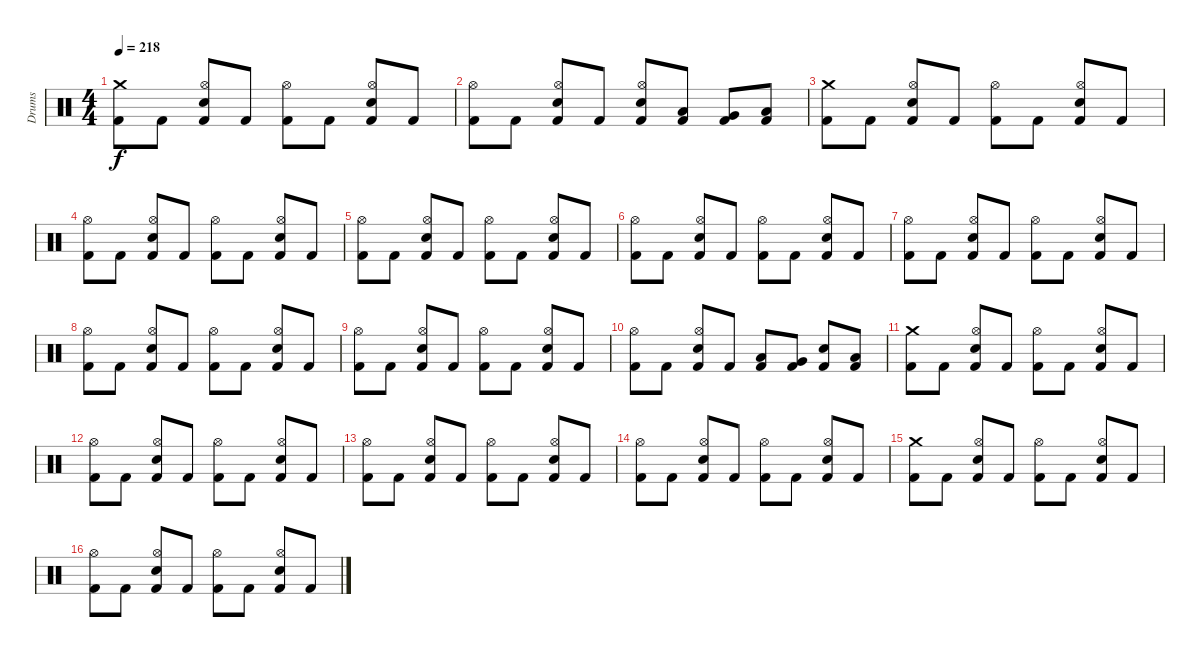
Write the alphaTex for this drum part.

\track ("Drums" "Drums") {instrument percussion}
\staff {score}
\articulation defaults
\ts (4 4)
\tempo 218
\clef neutral
\ks c
("Crash medium (hit)" "Kick (hit) 2").8{dy f} "Kick (hit) 2".8 ("Hi-Hat (open)" "Snare (hit) 2" "Kick (hit) 2").8 "Kick (hit) 2".8 ("Hi-Hat (open)" "Kick (hit) 2").8 "Kick (hit) 2".8 ("Hi-Hat (open)" "Snare (hit) 2" "Kick (hit) 2").8 "Kick (hit) 2".8 |
("Hi-Hat (open)" "Kick (hit) 2").8 "Kick (hit) 2".8 ("Hi-Hat (open)" "Snare (hit) 2" "Kick (hit) 2").8 "Kick (hit) 2".8 ("Hi-Hat (open)" "Snare (hit) 2" "Kick (hit) 2").8 ("Low Tom (hit)" "Kick (hit) 2").8 ("Very Low Tom (hit)" "Kick (hit) 2").8 ("Low Floor Tom (hit)" "Kick (hit) 2").8 |
("Crash medium (hit)" "Kick (hit) 2").8 "Kick (hit) 2".8 ("Hi-Hat (open)" "Snare (hit) 2" "Kick (hit) 2").8 "Kick (hit) 2".8 ("Hi-Hat (open)" "Kick (hit) 2").8 "Kick (hit) 2".8 ("Hi-Hat (open)" "Snare (hit) 2" "Kick (hit) 2").8 "Kick (hit) 2".8 |
("Hi-Hat (open)" "Kick (hit) 2").8 "Kick (hit) 2".8 ("Hi-Hat (open)" "Snare (hit) 2" "Kick (hit) 2").8 "Kick (hit) 2".8 ("Hi-Hat (open)" "Kick (hit) 2").8 "Kick (hit) 2".8 ("Hi-Hat (open)" "Snare (hit) 2" "Kick (hit) 2").8 "Kick (hit) 2".8 |
("Hi-Hat (open)" "Kick (hit) 2").8 "Kick (hit) 2".8 ("Hi-Hat (open)" "Snare (hit) 2" "Kick (hit) 2").8 "Kick (hit) 2".8 ("Hi-Hat (open)" "Kick (hit) 2").8 "Kick (hit) 2".8 ("Hi-Hat (open)" "Snare (hit) 2" "Kick (hit) 2").8 "Kick (hit) 2".8 |
("Hi-Hat (open)" "Kick (hit) 2").8 "Kick (hit) 2".8 ("Hi-Hat (open)" "Snare (hit) 2" "Kick (hit) 2").8 "Kick (hit) 2".8 ("Hi-Hat (open)" "Kick (hit) 2").8 "Kick (hit) 2".8 ("Hi-Hat (open)" "Snare (hit) 2" "Kick (hit) 2").8 "Kick (hit) 2".8 |
("Hi-Hat (open)" "Kick (hit) 2").8 "Kick (hit) 2".8 ("Hi-Hat (open)" "Snare (hit) 2" "Kick (hit) 2").8 "Kick (hit) 2".8 ("Hi-Hat (open)" "Kick (hit) 2").8 "Kick (hit) 2".8 ("Hi-Hat (open)" "Snare (hit) 2" "Kick (hit) 2").8 "Kick (hit) 2".8 |
("Hi-Hat (open)" "Kick (hit) 2").8 "Kick (hit) 2".8 ("Hi-Hat (open)" "Snare (hit) 2" "Kick (hit) 2").8 "Kick (hit) 2".8 ("Hi-Hat (open)" "Kick (hit) 2").8 "Kick (hit) 2".8 ("Hi-Hat (open)" "Snare (hit) 2" "Kick (hit) 2").8 "Kick (hit) 2".8 |
("Hi-Hat (open)" "Kick (hit) 2").8 "Kick (hit) 2".8 ("Hi-Hat (open)" "Snare (hit) 2" "Kick (hit) 2").8 "Kick (hit) 2".8 ("Hi-Hat (open)" "Kick (hit) 2").8 "Kick (hit) 2".8 ("Hi-Hat (open)" "Snare (hit) 2" "Kick (hit) 2").8 "Kick (hit) 2".8 |
("Hi-Hat (open)" "Kick (hit) 2").8 "Kick (hit) 2".8 ("Hi-Hat (open)" "Snare (hit) 2" "Kick (hit) 2").8 "Kick (hit) 2".8 ("Low Tom (hit)" "Kick (hit) 2").8 ("Very Low Tom (hit)" "Kick (hit) 2").8 ("Snare (hit) 2" "Kick (hit) 2").8 ("Low Floor Tom (hit)" "Kick (hit) 2").8 |
("Crash medium (hit)" "Kick (hit) 2").8 "Kick (hit) 2".8 ("Hi-Hat (open)" "Snare (hit) 2" "Kick (hit) 2").8 "Kick (hit) 2".8 ("Hi-Hat (open)" "Kick (hit) 2").8 "Kick (hit) 2".8 ("Hi-Hat (open)" "Snare (hit) 2" "Kick (hit) 2").8 "Kick (hit) 2".8 |
("Hi-Hat (open)" "Kick (hit) 2").8 "Kick (hit) 2".8 ("Hi-Hat (open)" "Snare (hit) 2" "Kick (hit) 2").8 "Kick (hit) 2".8 ("Hi-Hat (open)" "Kick (hit) 2").8 "Kick (hit) 2".8 ("Hi-Hat (open)" "Snare (hit) 2" "Kick (hit) 2").8 "Kick (hit) 2".8 |
("Hi-Hat (open)" "Kick (hit) 2").8 "Kick (hit) 2".8 ("Hi-Hat (open)" "Snare (hit) 2" "Kick (hit) 2").8 "Kick (hit) 2".8 ("Hi-Hat (open)" "Kick (hit) 2").8 "Kick (hit) 2".8 ("Hi-Hat (open)" "Snare (hit) 2" "Kick (hit) 2").8 "Kick (hit) 2".8 |
("Hi-Hat (open)" "Kick (hit) 2").8 "Kick (hit) 2".8 ("Hi-Hat (open)" "Snare (hit) 2" "Kick (hit) 2").8 "Kick (hit) 2".8 ("Hi-Hat (open)" "Kick (hit) 2").8 "Kick (hit) 2".8 ("Hi-Hat (open)" "Snare (hit) 2" "Kick (hit) 2").8 "Kick (hit) 2".8 |
("Crash medium (hit)" "Kick (hit) 2").8 "Kick (hit) 2".8 ("Hi-Hat (open)" "Snare (hit) 2" "Kick (hit) 2").8 "Kick (hit) 2".8 ("Hi-Hat (open)" "Kick (hit) 2").8 "Kick (hit) 2".8 ("Hi-Hat (open)" "Snare (hit) 2" "Kick (hit) 2").8 "Kick (hit) 2".8 |
("Hi-Hat (open)" "Kick (hit) 2").8 "Kick (hit) 2".8 ("Hi-Hat (open)" "Snare (hit) 2" "Kick (hit) 2").8 "Kick (hit) 2".8 ("Hi-Hat (open)" "Kick (hit) 2").8 "Kick (hit) 2".8 ("Hi-Hat (open)" "Snare (hit) 2" "Kick (hit) 2").8 "Kick (hit) 2".8
